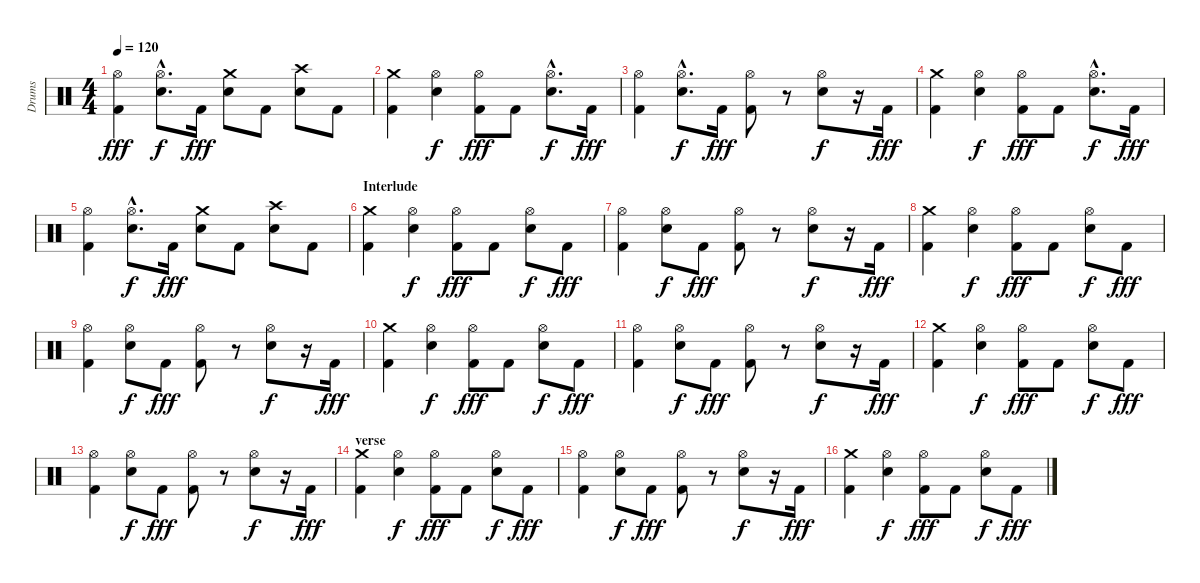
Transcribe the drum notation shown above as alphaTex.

\track ("Drums" "Drums") {instrument percussion}
\staff {score}
\articulation defaults
\ts (4 4)
\tempo 120
\clef neutral
\ks c
("Kick (hit) 2" "Hi-Hat (open)").4{dy fff} ("Electric Snare (hit)"{hac} "Hi-Hat (open)"{hac}).8{d dy f} "Kick (hit) 2".16{dy fff} ("Electric Snare (hit)" "Crash medium (hit)").8 "Kick (hit) 2".8 ("Electric Snare (hit)" "Crash high (hit)").8 "Kick (hit) 2".8 |
("Kick (hit) 2" "Crash medium (hit)").4 ("Electric Snare (hit)" "Hi-Hat (open)").4{dy f} ("Kick (hit) 2" "Hi-Hat (open)").8{dy fff} "Kick (hit) 2".8 ("Electric Snare (hit)"{hac} "Hi-Hat (open)"{hac}).8{d dy f} "Kick (hit) 2".16{dy fff} |
("Kick (hit) 2" "Hi-Hat (open)").4 ("Electric Snare (hit)"{hac} "Hi-Hat (open)"{hac}).8{d dy f} "Kick (hit) 2".16{dy fff} ("Kick (hit) 2" "Hi-Hat (open)").8 r.8 ("Electric Snare (hit)" "Hi-Hat (open)").8{dy f} r.16 "Kick (hit) 2".16{dy fff} |
("Kick (hit) 2" "Crash medium (hit)").4 ("Electric Snare (hit)" "Hi-Hat (open)").4{dy f} ("Kick (hit) 2" "Hi-Hat (open)").8{dy fff} "Kick (hit) 2".8 ("Electric Snare (hit)"{hac} "Hi-Hat (open)"{hac}).8{d dy f} "Kick (hit) 2".16{dy fff} |
("Kick (hit) 2" "Hi-Hat (open)").4 ("Electric Snare (hit)"{hac} "Hi-Hat (open)"{hac}).8{d dy f} "Kick (hit) 2".16{dy fff} ("Electric Snare (hit)" "Crash medium (hit)").8 "Kick (hit) 2".8 ("Electric Snare (hit)" "Crash high (hit)").8 "Kick (hit) 2".8 |
\section ("" "Interlude")
("Kick (hit) 2" "Crash medium (hit)").4 ("Electric Snare (hit)" "Hi-Hat (open)").4{dy f} ("Kick (hit) 2" "Hi-Hat (open)").8{dy fff} "Kick (hit) 2".8 ("Electric Snare (hit)" "Hi-Hat (open)").8{dy f} "Kick (hit) 2".8{dy fff} |
("Kick (hit) 2" "Hi-Hat (open)").4 ("Electric Snare (hit)" "Hi-Hat (open)").8{dy f} "Kick (hit) 2".8{dy fff} ("Kick (hit) 2" "Hi-Hat (open)").8 r.8 ("Electric Snare (hit)" "Hi-Hat (open)").8{dy f} r.16 "Kick (hit) 2".16{dy fff} |
("Kick (hit) 2" "Crash medium (hit)").4 ("Electric Snare (hit)" "Hi-Hat (open)").4{dy f} ("Kick (hit) 2" "Hi-Hat (open)").8{dy fff} "Kick (hit) 2".8 ("Electric Snare (hit)" "Hi-Hat (open)").8{dy f} "Kick (hit) 2".8{dy fff} |
("Kick (hit) 2" "Hi-Hat (open)").4 ("Electric Snare (hit)" "Hi-Hat (open)").8{dy f} "Kick (hit) 2".8{dy fff} ("Kick (hit) 2" "Hi-Hat (open)").8 r.8 ("Electric Snare (hit)" "Hi-Hat (open)").8{dy f} r.16 "Kick (hit) 2".16{dy fff} |
("Kick (hit) 2" "Crash medium (hit)").4 ("Electric Snare (hit)" "Hi-Hat (open)").4{dy f} ("Kick (hit) 2" "Hi-Hat (open)").8{dy fff} "Kick (hit) 2".8 ("Electric Snare (hit)" "Hi-Hat (open)").8{dy f} "Kick (hit) 2".8{dy fff} |
("Kick (hit) 2" "Hi-Hat (open)").4 ("Electric Snare (hit)" "Hi-Hat (open)").8{dy f} "Kick (hit) 2".8{dy fff} ("Kick (hit) 2" "Hi-Hat (open)").8 r.8 ("Electric Snare (hit)" "Hi-Hat (open)").8{dy f} r.16 "Kick (hit) 2".16{dy fff} |
("Kick (hit) 2" "Crash medium (hit)").4 ("Electric Snare (hit)" "Hi-Hat (open)").4{dy f} ("Kick (hit) 2" "Hi-Hat (open)").8{dy fff} "Kick (hit) 2".8 ("Electric Snare (hit)" "Hi-Hat (open)").8{dy f} "Kick (hit) 2".8{dy fff} |
("Kick (hit) 2" "Hi-Hat (open)").4 ("Electric Snare (hit)" "Hi-Hat (open)").8{dy f} "Kick (hit) 2".8{dy fff} ("Kick (hit) 2" "Hi-Hat (open)").8 r.8 ("Electric Snare (hit)" "Hi-Hat (open)").8{dy f} r.16 "Kick (hit) 2".16{dy fff} |
\section ("" "verse")
("Kick (hit) 2" "Crash medium (hit)").4 ("Electric Snare (hit)" "Hi-Hat (open)").4{dy f} ("Kick (hit) 2" "Hi-Hat (open)").8{dy fff} "Kick (hit) 2".8 ("Electric Snare (hit)" "Hi-Hat (open)").8{dy f} "Kick (hit) 2".8{dy fff} |
("Kick (hit) 2" "Hi-Hat (open)").4 ("Electric Snare (hit)" "Hi-Hat (open)").8{dy f} "Kick (hit) 2".8{dy fff} ("Kick (hit) 2" "Hi-Hat (open)").8 r.8 ("Electric Snare (hit)" "Hi-Hat (open)").8{dy f} r.16 "Kick (hit) 2".16{dy fff} |
("Kick (hit) 2" "Crash medium (hit)").4 ("Electric Snare (hit)" "Hi-Hat (open)").4{dy f} ("Kick (hit) 2" "Hi-Hat (open)").8{dy fff} "Kick (hit) 2".8 ("Electric Snare (hit)" "Hi-Hat (open)").8{dy f} "Kick (hit) 2".8{dy fff}
